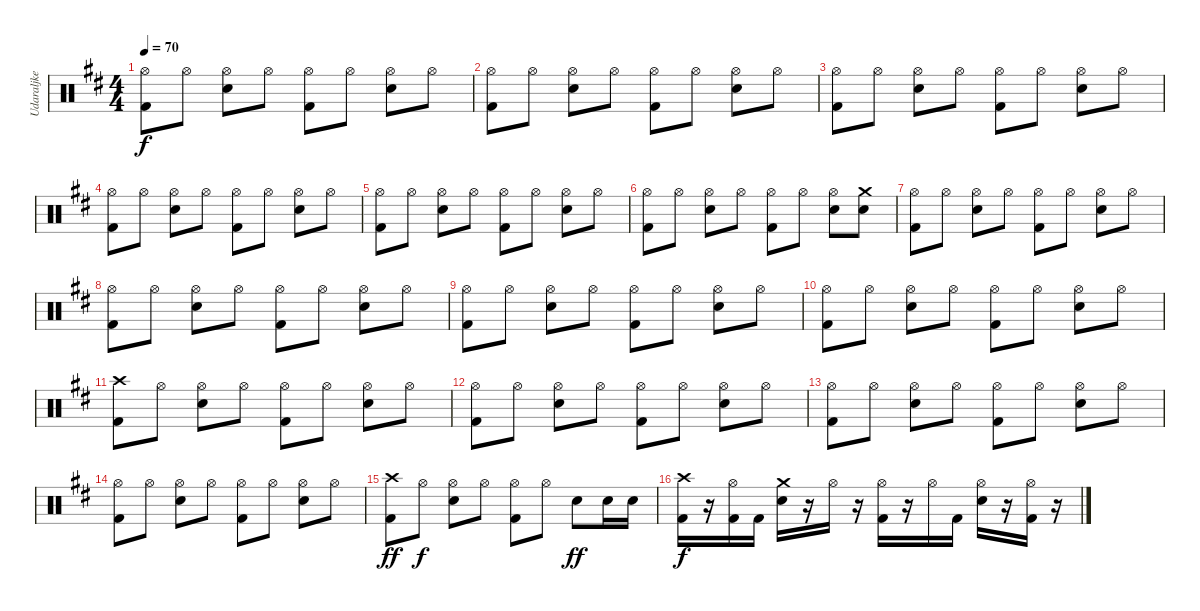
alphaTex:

\track ("Udaraljke" "Udaraljke") {instrument percussion}
\staff {score}
\articulation defaults
\ts (4 4)
\tempo 70
\clef neutral
\ks bminor
("Hi-Hat (open)" "Kick (hit) 2").8{dy f} "Hi-Hat (open)".8 ("Hi-Hat (open)" "Snare (hit) 2").8 "Hi-Hat (open)".8 ("Hi-Hat (open)" "Kick (hit) 2").8 "Hi-Hat (open)".8 ("Hi-Hat (open)" "Snare (hit) 2").8 "Hi-Hat (open)".8 |
("Hi-Hat (open)" "Kick (hit) 2").8 "Hi-Hat (open)".8 ("Hi-Hat (open)" "Snare (hit) 2").8 "Hi-Hat (open)".8 ("Hi-Hat (open)" "Kick (hit) 2").8 "Hi-Hat (open)".8 ("Hi-Hat (open)" "Snare (hit) 2").8 "Hi-Hat (open)".8 |
("Hi-Hat (open)" "Kick (hit) 2").8 "Hi-Hat (open)".8 ("Hi-Hat (open)" "Snare (hit) 2").8 "Hi-Hat (open)".8 ("Hi-Hat (open)" "Kick (hit) 2").8 "Hi-Hat (open)".8 ("Hi-Hat (open)" "Snare (hit) 2").8 "Hi-Hat (open)".8 |
("Hi-Hat (open)" "Kick (hit) 2").8 "Hi-Hat (open)".8 ("Hi-Hat (open)" "Snare (hit) 2").8 "Hi-Hat (open)".8 ("Hi-Hat (open)" "Kick (hit) 2").8 "Hi-Hat (open)".8 ("Hi-Hat (open)" "Snare (hit) 2").8 "Hi-Hat (open)".8 |
("Hi-Hat (open)" "Kick (hit) 2").8 "Hi-Hat (open)".8 ("Hi-Hat (open)" "Snare (hit) 2").8 "Hi-Hat (open)".8 ("Hi-Hat (open)" "Kick (hit) 2").8 "Hi-Hat (open)".8 ("Hi-Hat (open)" "Snare (hit) 2").8 "Hi-Hat (open)".8 |
("Hi-Hat (open)" "Kick (hit) 2").8 "Hi-Hat (open)".8 ("Hi-Hat (open)" "Snare (hit) 2").8 "Hi-Hat (open)".8 ("Hi-Hat (open)" "Kick (hit) 2").8 "Hi-Hat (open)".8 ("Hi-Hat (open)" "Snare (hit) 2").8 ("Crash medium (hit)" "Snare (hit) 2").8 |
("Hi-Hat (open)" "Kick (hit) 2").8 "Hi-Hat (open)".8 ("Hi-Hat (open)" "Snare (hit) 2").8 "Hi-Hat (open)".8 ("Hi-Hat (open)" "Kick (hit) 2").8 "Hi-Hat (open)".8 ("Hi-Hat (open)" "Snare (hit) 2").8 "Hi-Hat (open)".8 |
("Hi-Hat (open)" "Kick (hit) 2").8 "Hi-Hat (open)".8 ("Hi-Hat (open)" "Snare (hit) 2").8 "Hi-Hat (open)".8 ("Hi-Hat (open)" "Kick (hit) 2").8 "Hi-Hat (open)".8 ("Hi-Hat (open)" "Snare (hit) 2").8 "Hi-Hat (open)".8 |
("Hi-Hat (open)" "Kick (hit) 2").8 "Hi-Hat (open)".8 ("Hi-Hat (open)" "Snare (hit) 2").8 "Hi-Hat (open)".8 ("Hi-Hat (open)" "Kick (hit) 2").8 "Hi-Hat (open)".8 ("Hi-Hat (open)" "Snare (hit) 2").8 "Hi-Hat (open)".8 |
("Hi-Hat (open)" "Kick (hit) 2").8 "Hi-Hat (open)".8 ("Hi-Hat (open)" "Snare (hit) 2").8 "Hi-Hat (open)".8 ("Hi-Hat (open)" "Kick (hit) 2").8 "Hi-Hat (open)".8 ("Hi-Hat (open)" "Snare (hit) 2").8 "Hi-Hat (open)".8 |
("Crash high (hit)" "Kick (hit) 2").8 "Hi-Hat (open)".8 ("Hi-Hat (open)" "Snare (hit) 2").8 "Hi-Hat (open)".8 ("Hi-Hat (open)" "Kick (hit) 2").8 "Hi-Hat (open)".8 ("Hi-Hat (open)" "Snare (hit) 2").8 "Hi-Hat (open)".8 |
("Hi-Hat (open)" "Kick (hit) 2").8 "Hi-Hat (open)".8 ("Hi-Hat (open)" "Snare (hit) 2").8 "Hi-Hat (open)".8 ("Hi-Hat (open)" "Kick (hit) 2").8 "Hi-Hat (open)".8 ("Hi-Hat (open)" "Snare (hit) 2").8 "Hi-Hat (open)".8 |
("Hi-Hat (open)" "Kick (hit) 2").8 "Hi-Hat (open)".8 ("Hi-Hat (open)" "Snare (hit) 2").8 "Hi-Hat (open)".8 ("Hi-Hat (open)" "Kick (hit) 2").8 "Hi-Hat (open)".8 ("Hi-Hat (open)" "Snare (hit) 2").8 "Hi-Hat (open)".8 |
("Hi-Hat (open)" "Kick (hit) 2").8 "Hi-Hat (open)".8 ("Hi-Hat (open)" "Snare (hit) 2").8 "Hi-Hat (open)".8 ("Hi-Hat (open)" "Kick (hit) 2").8 "Hi-Hat (open)".8 ("Hi-Hat (open)" "Snare (hit) 2").8 "Hi-Hat (open)".8 |
("Crash high (hit)" "Kick (hit) 2").8{dy ff} "Hi-Hat (open)".8{dy f} ("Hi-Hat (open)" "Snare (hit) 2").8 "Hi-Hat (open)".8 ("Hi-Hat (open)" "Kick (hit) 2").8 "Hi-Hat (open)".8 "Snare (hit) 2".8{dy ff} "Snare (hit) 2".16 "Snare (hit) 2".16 |
("Crash high (hit)" "Kick (hit) 2").16{dy f} r.16 ("Hi-Hat (open)" "Kick (hit) 2").16 "Kick (hit) 2".16 ("Crash medium (hit)" "Snare (hit) 2").16 r.16 "Hi-Hat (open)".16 r.16 ("Hi-Hat (open)" "Kick (hit) 2").16 r.16 "Hi-Hat (open)".16 "Kick (hit) 2".16 ("Hi-Hat (open)" "Snare (hit) 2").16 r.16 ("Hi-Hat (open)" "Kick (hit) 2").16 r.16
